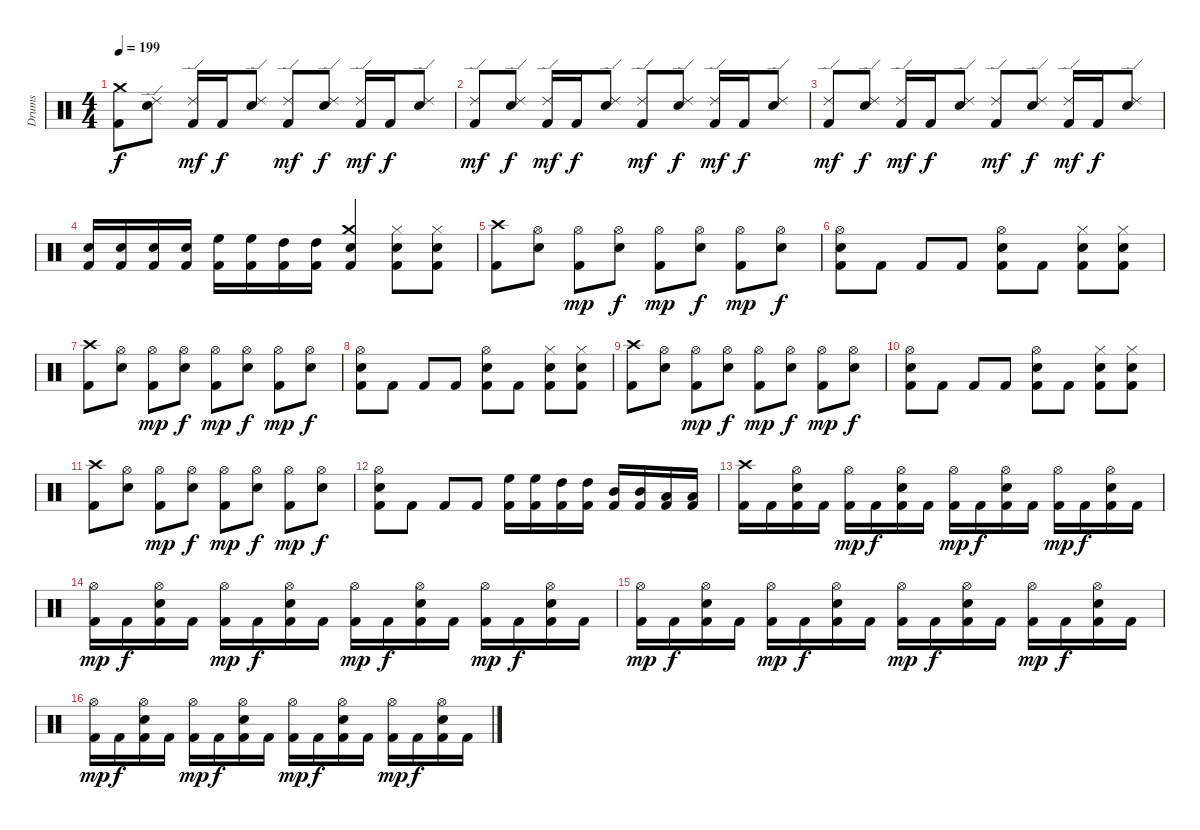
\track ("Drums" "Drums") {instrument percussion}
\staff {score}
\articulation defaults
\ts (4 4)
\tempo 199
\clef neutral
\ks c
("Kick (hit) 2" "Crash medium (hit)").8{dy f} ("Snare (hit) 2" "Ride (edge) 2").8 ("Kick (hit) 2" "Ride (edge) 2").16{dy mf} "Kick (hit) 2".16{dy f} ("Snare (hit) 2" "Ride (edge) 2").8 ("Kick (hit) 2" "Ride (edge) 2").8{dy mf} ("Snare (hit) 2" "Ride (edge) 2").8{dy f} ("Kick (hit) 2" "Ride (edge) 2").16{dy mf} "Kick (hit) 2".16{dy f} ("Snare (hit) 2" "Ride (edge) 2").8 |
("Kick (hit) 2" "Ride (edge) 2").8{dy mf} ("Snare (hit) 2" "Ride (edge) 2").8{dy f} ("Kick (hit) 2" "Ride (edge) 2").16{dy mf} "Kick (hit) 2".16{dy f} ("Snare (hit) 2" "Ride (edge) 2").8 ("Kick (hit) 2" "Ride (edge) 2").8{dy mf} ("Snare (hit) 2" "Ride (edge) 2").8{dy f} ("Kick (hit) 2" "Ride (edge) 2").16{dy mf} "Kick (hit) 2".16{dy f} ("Snare (hit) 2" "Ride (edge) 2").8 |
("Kick (hit) 2" "Ride (edge) 2").8{dy mf} ("Snare (hit) 2" "Ride (edge) 2").8{dy f} ("Kick (hit) 2" "Ride (edge) 2").16{dy mf} "Kick (hit) 2".16{dy f} ("Snare (hit) 2" "Ride (edge) 2").8 ("Kick (hit) 2" "Ride (edge) 2").8{dy mf} ("Snare (hit) 2" "Ride (edge) 2").8{dy f} ("Kick (hit) 2" "Ride (edge) 2").16{dy mf} "Kick (hit) 2".16{dy f} ("Snare (hit) 2" "Ride (edge) 2").8 |
("Kick (hit) 2" "Snare (hit) 2").16 ("Kick (hit) 2" "Snare (hit) 2").16 ("Kick (hit) 2" "Snare (hit) 2").16 ("Kick (hit) 2" "Snare (hit) 2").16 ("Kick (hit) 2" "High Floor Tom (hit)").16 ("Kick (hit) 2" "High Floor Tom (hit)").16 ("Kick (hit) 2" "High Tom (hit)").16 ("Kick (hit) 2" "High Tom (hit)").16 ("Kick (hit) 2" "Snare (hit) 2" "Crash medium (hit)").4 ("Kick (hit) 2" "Snare (hit) 2" "Hi-Hat (closed)").8 ("Kick (hit) 2" "Snare (hit) 2" "Hi-Hat (closed)").8 |
\section ("" "")
("Kick (hit) 2" "Crash high (hit)").8 ("Snare (hit) 2" "Hi-Hat (open)").8 ("Kick (hit) 2" "Hi-Hat (open)").8{dy mp} ("Snare (hit) 2" "Hi-Hat (open)").8{dy f} ("Kick (hit) 2" "Hi-Hat (open)").8{dy mp} ("Snare (hit) 2" "Hi-Hat (open)").8{dy f} ("Kick (hit) 2" "Hi-Hat (open)").8{dy mp} ("Snare (hit) 2" "Hi-Hat (open)").8{dy f} |
("Kick (hit) 2" "Snare (hit) 2" "Hi-Hat (open)").8 "Kick (hit) 2".8 "Kick (hit) 2".8 "Kick (hit) 2".8 ("Kick (hit) 2" "Snare (hit) 2" "Hi-Hat (open)").8 "Kick (hit) 2".8 ("Kick (hit) 2" "Snare (hit) 2" "Hi-Hat (closed)").8 ("Kick (hit) 2" "Snare (hit) 2" "Hi-Hat (closed)").8 |
("Kick (hit) 2" "Crash high (hit)").8 ("Snare (hit) 2" "Hi-Hat (open)").8 ("Kick (hit) 2" "Hi-Hat (open)").8{dy mp} ("Snare (hit) 2" "Hi-Hat (open)").8{dy f} ("Kick (hit) 2" "Hi-Hat (open)").8{dy mp} ("Snare (hit) 2" "Hi-Hat (open)").8{dy f} ("Kick (hit) 2" "Hi-Hat (open)").8{dy mp} ("Snare (hit) 2" "Hi-Hat (open)").8{dy f} |
("Kick (hit) 2" "Snare (hit) 2" "Hi-Hat (open)").8 "Kick (hit) 2".8 "Kick (hit) 2".8 "Kick (hit) 2".8 ("Kick (hit) 2" "Snare (hit) 2" "Hi-Hat (open)").8 "Kick (hit) 2".8 ("Kick (hit) 2" "Snare (hit) 2" "Hi-Hat (closed)").8 ("Kick (hit) 2" "Snare (hit) 2" "Hi-Hat (closed)").8 |
\section ("" "")
("Kick (hit) 2" "Crash high (hit)").8 ("Snare (hit) 2" "Hi-Hat (open)").8 ("Kick (hit) 2" "Hi-Hat (open)").8{dy mp} ("Snare (hit) 2" "Hi-Hat (open)").8{dy f} ("Kick (hit) 2" "Hi-Hat (open)").8{dy mp} ("Snare (hit) 2" "Hi-Hat (open)").8{dy f} ("Kick (hit) 2" "Hi-Hat (open)").8{dy mp} ("Snare (hit) 2" "Hi-Hat (open)").8{dy f} |
("Kick (hit) 2" "Snare (hit) 2" "Hi-Hat (open)").8 "Kick (hit) 2".8 "Kick (hit) 2".8 "Kick (hit) 2".8 ("Kick (hit) 2" "Snare (hit) 2" "Hi-Hat (open)").8 "Kick (hit) 2".8 ("Kick (hit) 2" "Snare (hit) 2" "Hi-Hat (closed)").8 ("Kick (hit) 2" "Snare (hit) 2" "Hi-Hat (closed)").8 |
("Kick (hit) 2" "Crash high (hit)").8 ("Snare (hit) 2" "Hi-Hat (open)").8 ("Kick (hit) 2" "Hi-Hat (open)").8{dy mp} ("Snare (hit) 2" "Hi-Hat (open)").8{dy f} ("Kick (hit) 2" "Hi-Hat (open)").8{dy mp} ("Snare (hit) 2" "Hi-Hat (open)").8{dy f} ("Kick (hit) 2" "Hi-Hat (open)").8{dy mp} ("Snare (hit) 2" "Hi-Hat (open)").8{dy f} |
("Kick (hit) 2" "Snare (hit) 2" "Hi-Hat (open)").8 "Kick (hit) 2".8 "Kick (hit) 2".8 "Kick (hit) 2".8 ("Kick (hit) 2" "High Floor Tom (hit)").16 ("Kick (hit) 2" "High Floor Tom (hit)").16 ("Kick (hit) 2" "High Tom (hit)").16 ("Kick (hit) 2" "High Tom (hit)").16 ("Kick (hit) 2" "Mid Tom (hit)").16 ("Kick (hit) 2" "Mid Tom (hit)").16 ("Kick (hit) 2" "Low Tom (hit)").16 ("Kick (hit) 2" "Low Tom (hit)").16 |
\section ("" "")
("Kick (hit) 2" "Crash high (hit)").16 "Kick (hit) 2".16 ("Kick (hit) 2" "Snare (hit) 2" "Hi-Hat (open)").16 "Kick (hit) 2".16 ("Kick (hit) 2" "Hi-Hat (open)").16{dy mp} "Kick (hit) 2".16{dy f} ("Kick (hit) 2" "Snare (hit) 2" "Hi-Hat (open)").16 "Kick (hit) 2".16 ("Kick (hit) 2" "Hi-Hat (open)").16{dy mp} "Kick (hit) 2".16{dy f} ("Kick (hit) 2" "Snare (hit) 2" "Hi-Hat (open)").16 "Kick (hit) 2".16 ("Kick (hit) 2" "Hi-Hat (open)").16{dy mp} "Kick (hit) 2".16{dy f} ("Kick (hit) 2" "Snare (hit) 2" "Hi-Hat (open)").16 "Kick (hit) 2".16 |
("Kick (hit) 2" "Hi-Hat (open)").16{dy mp} "Kick (hit) 2".16{dy f} ("Kick (hit) 2" "Snare (hit) 2" "Hi-Hat (open)").16 "Kick (hit) 2".16 ("Kick (hit) 2" "Hi-Hat (open)").16{dy mp} "Kick (hit) 2".16{dy f} ("Kick (hit) 2" "Snare (hit) 2" "Hi-Hat (open)").16 "Kick (hit) 2".16 ("Kick (hit) 2" "Hi-Hat (open)").16{dy mp} "Kick (hit) 2".16{dy f} ("Kick (hit) 2" "Snare (hit) 2" "Hi-Hat (open)").16 "Kick (hit) 2".16 ("Kick (hit) 2" "Hi-Hat (open)").16{dy mp} "Kick (hit) 2".16{dy f} ("Kick (hit) 2" "Snare (hit) 2" "Hi-Hat (open)").16 "Kick (hit) 2".16 |
("Kick (hit) 2" "Hi-Hat (open)").16{dy mp} "Kick (hit) 2".16{dy f} ("Kick (hit) 2" "Snare (hit) 2" "Hi-Hat (open)").16 "Kick (hit) 2".16 ("Kick (hit) 2" "Hi-Hat (open)").16{dy mp} "Kick (hit) 2".16{dy f} ("Kick (hit) 2" "Snare (hit) 2" "Hi-Hat (open)").16 "Kick (hit) 2".16 ("Kick (hit) 2" "Hi-Hat (open)").16{dy mp} "Kick (hit) 2".16{dy f} ("Kick (hit) 2" "Snare (hit) 2" "Hi-Hat (open)").16 "Kick (hit) 2".16 ("Kick (hit) 2" "Hi-Hat (open)").16{dy mp} "Kick (hit) 2".16{dy f} ("Kick (hit) 2" "Snare (hit) 2" "Hi-Hat (open)").16 "Kick (hit) 2".16 |
("Kick (hit) 2" "Hi-Hat (open)").16{dy mp} "Kick (hit) 2".16{dy f} ("Kick (hit) 2" "Snare (hit) 2" "Hi-Hat (open)").16 "Kick (hit) 2".16 ("Kick (hit) 2" "Hi-Hat (open)").16{dy mp} "Kick (hit) 2".16{dy f} ("Kick (hit) 2" "Snare (hit) 2" "Hi-Hat (open)").16 "Kick (hit) 2".16 ("Kick (hit) 2" "Hi-Hat (open)").16{dy mp} "Kick (hit) 2".16{dy f} ("Kick (hit) 2" "Snare (hit) 2" "Hi-Hat (open)").16 "Kick (hit) 2".16 ("Kick (hit) 2" "Hi-Hat (open)").16{dy mp} "Kick (hit) 2".16{dy f} ("Kick (hit) 2" "Snare (hit) 2" "Hi-Hat (open)").16 "Kick (hit) 2".16
